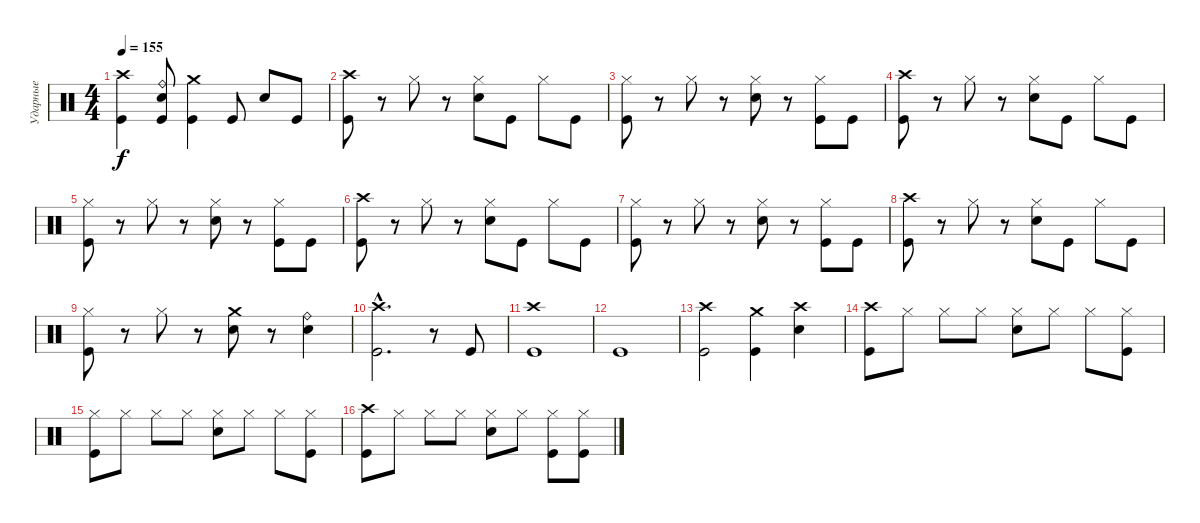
\track ("Ударные" "Ударные") {instrument percussion}
\staff {score}
\articulation defaults
\ts (4 4)
\tempo 155
\clef neutral
\ks c
("Crash high (hit)" "Kick (hit)").4{dy f} ("Ride (bell)" "Electric Snare (hit)" "Kick (hit)").8 ("Crash medium (hit)" "Kick (hit)").4 "Kick (hit)".8 "Electric Snare (hit)".8 "Kick (hit)".8 |
("Crash high (hit)" "Kick (hit)").8 r.8 "Hi-Hat (closed)".8 r.8 ("Hi-Hat (closed)" "Electric Snare (hit)").8 "Kick (hit)".8 "Hi-Hat (closed)".8 "Kick (hit)".8 |
("Hi-Hat (closed)" "Kick (hit)").8 r.8 "Hi-Hat (closed)".8 r.8 ("Hi-Hat (closed)" "Electric Snare (hit)").8 r.8 ("Hi-Hat (closed)" "Kick (hit)").8 "Kick (hit)".8 |
("Crash high (hit)" "Kick (hit)").8 r.8 "Hi-Hat (closed)".8 r.8 ("Hi-Hat (closed)" "Electric Snare (hit)").8 "Kick (hit)".8 "Hi-Hat (closed)".8 "Kick (hit)".8 |
("Hi-Hat (closed)" "Kick (hit)").8 r.8 "Hi-Hat (closed)".8 r.8 ("Hi-Hat (closed)" "Electric Snare (hit)").8 r.8 ("Hi-Hat (closed)" "Kick (hit)").8 "Kick (hit)".8 |
("Crash high (hit)" "Kick (hit)").8 r.8 "Hi-Hat (closed)".8 r.8 ("Hi-Hat (closed)" "Electric Snare (hit)").8 "Kick (hit)".8 "Hi-Hat (closed)".8 "Kick (hit)".8 |
("Hi-Hat (closed)" "Kick (hit)").8 r.8 "Hi-Hat (closed)".8 r.8 ("Hi-Hat (closed)" "Electric Snare (hit)").8 r.8 ("Hi-Hat (closed)" "Kick (hit)").8 "Kick (hit)".8 |
("Crash high (hit)" "Kick (hit)").8 r.8 "Hi-Hat (closed)".8 r.8 ("Hi-Hat (closed)" "Electric Snare (hit)").8 "Kick (hit)".8 "Hi-Hat (closed)".8 "Kick (hit)".8 |
("Hi-Hat (closed)" "Kick (hit)").8 r.8 "Hi-Hat (closed)".8 r.8 ("Crash medium (hit)" "Electric Snare (hit)").8 r.8 ("Ride (bell)" "Electric Snare (hit)").4 |
("Kick (hit)"{hac} "Crash high (hit)"{hac}).2{d} r.8 "Kick (hit)".8 |
("Kick (hit)" "Crash high (hit)").1 |
"Kick (hit)".1 |
("Kick (hit)" "Crash high (hit)").2 ("Crash medium (hit)" "Kick (hit)").4 ("Crash high (hit)" "Electric Snare (hit)").4 |
("Crash high (hit)" "Kick (hit)").8 "Hi-Hat (closed)".8 "Hi-Hat (closed)".8 "Hi-Hat (closed)".8 ("Hi-Hat (closed)" "Electric Snare (hit)").8 "Hi-Hat (closed)".8 "Hi-Hat (closed)".8 ("Hi-Hat (closed)" "Kick (hit)").8 |
("Hi-Hat (closed)" "Kick (hit)").8 "Hi-Hat (closed)".8 "Hi-Hat (closed)".8 "Hi-Hat (closed)".8 ("Hi-Hat (closed)" "Electric Snare (hit)").8 "Hi-Hat (closed)".8 "Hi-Hat (closed)".8 ("Hi-Hat (closed)" "Kick (hit)").8 |
("Crash high (hit)" "Kick (hit)").8 "Hi-Hat (closed)".8 "Hi-Hat (closed)".8 "Hi-Hat (closed)".8 ("Hi-Hat (closed)" "Electric Snare (hit)").8 "Hi-Hat (closed)".8 ("Hi-Hat (closed)" "Kick (hit)").8 ("Hi-Hat (closed)" "Kick (hit)").8
